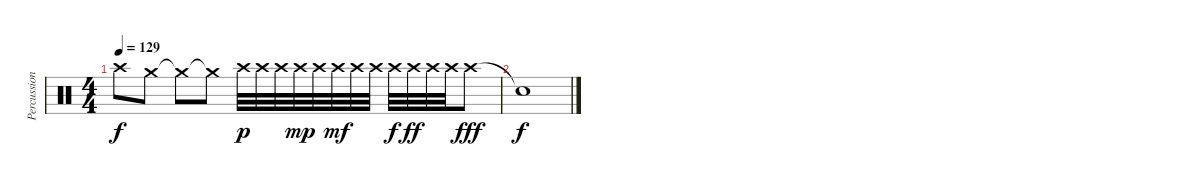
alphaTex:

\track ("Percussion" "Percussion") {instrument percussion}
\staff {score}
\articulation defaults
\ts (4 4)
\tempo 129
\clef neutral
\ks c "Crash high (hit)".8{dy f} "Crash medium (hit)".8 "Crash medium (hit)"{t}.8 "Crash medium (hit)"{t}.8 "Crash high (hit)".32{dy p} "Crash high (hit)".32 "Crash high (hit)".32 "Crash high (hit)".32{dy mp} "Crash high (hit)".32 "Crash high (hit)".32{dy mf} "Crash high (hit)".32 "Crash high (hit)".32 "Crash high (hit)".32{dy f} "Crash high (hit)".32{dy ff} "Crash high (hit)".32 "Crash high (hit)".32 "Crash high (hit)".8{dy fff}
|
"Snare (hit)"{t}.1{dy f}
